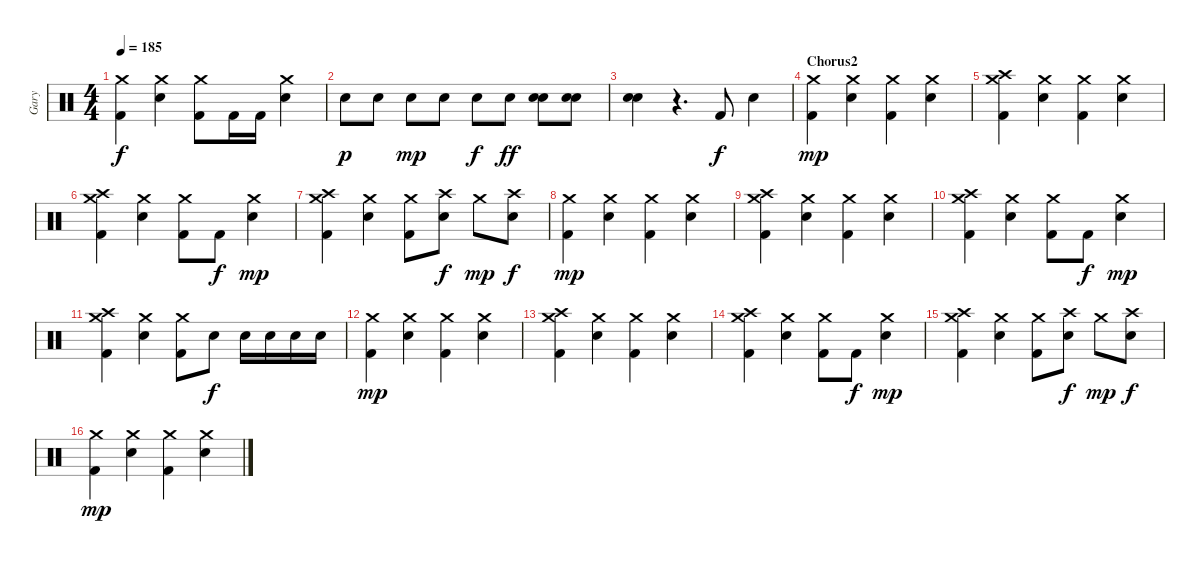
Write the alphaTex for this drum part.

\track ("Gary" "Gary") {instrument percussion}
\staff {score}
\articulation defaults
\ts (4 4)
\tempo 185
\clef neutral
\ks c
("Kick (hit) 2" "Crash medium (hit)").4{dy f} ("Electric Snare (hit)" "Crash medium (hit)").4 ("Kick (hit) 2" "Crash medium (hit)").8 "Kick (hit) 2".16 "Kick (hit) 2".16 ("Electric Snare (hit)" "Crash medium (hit)").4 |
"Electric Snare (hit)".8{dy p} "Electric Snare (hit)".8 "Electric Snare (hit)".8{dy mp} "Electric Snare (hit)".8 "Electric Snare (hit)".8{dy f} "Electric Snare (hit)".8{dy ff} ("Electric Snare (hit)" "Electric Snare (hit)").8 ("Electric Snare (hit)" "Electric Snare (hit)").8 |
("Electric Snare (hit)" "Electric Snare (hit)").4 r.4{d} "Kick (hit) 2".8{dy f} "Electric Snare (hit)".4 |
\section ("" "Chorus2")
("Kick (hit) 2" "Crash medium (hit)").4{dy mp} ("Electric Snare (hit)" "Crash medium (hit)").4 ("Kick (hit) 2" "Crash medium (hit)").4 ("Electric Snare (hit)" "Crash medium (hit)").4 |
("Crash high (hit)" "Kick (hit) 2" "Crash medium (hit)").4 ("Electric Snare (hit)" "Crash medium (hit)").4 ("Kick (hit) 2" "Crash medium (hit)").4 ("Electric Snare (hit)" "Crash medium (hit)").4 |
("Crash high (hit)" "Kick (hit) 2" "Crash medium (hit)").4 ("Electric Snare (hit)" "Crash medium (hit)").4 ("Kick (hit) 2" "Crash medium (hit)").8 "Kick (hit) 2".8{dy f} ("Electric Snare (hit)" "Crash medium (hit)").4{dy mp} |
("Crash high (hit)" "Kick (hit) 2" "Crash medium (hit)").4 ("Electric Snare (hit)" "Crash medium (hit)").4 ("Kick (hit) 2" "Crash medium (hit)").8 ("Crash high (hit)" "Electric Snare (hit)").8{dy f} "Crash medium (hit)".8{dy mp} ("Crash high (hit)" "Electric Snare (hit)").8{dy f} |
("Kick (hit) 2" "Crash medium (hit)").4{dy mp} ("Electric Snare (hit)" "Crash medium (hit)").4 ("Kick (hit) 2" "Crash medium (hit)").4 ("Electric Snare (hit)" "Crash medium (hit)").4 |
("Crash high (hit)" "Kick (hit) 2" "Crash medium (hit)").4 ("Electric Snare (hit)" "Crash medium (hit)").4 ("Kick (hit) 2" "Crash medium (hit)").4 ("Electric Snare (hit)" "Crash medium (hit)").4 |
("Crash high (hit)" "Kick (hit) 2" "Crash medium (hit)").4 ("Electric Snare (hit)" "Crash medium (hit)").4 ("Kick (hit) 2" "Crash medium (hit)").8 "Kick (hit) 2".8{dy f} ("Electric Snare (hit)" "Crash medium (hit)").4{dy mp} |
("Crash high (hit)" "Kick (hit) 2" "Crash medium (hit)").4 ("Electric Snare (hit)" "Crash medium (hit)").4 ("Kick (hit) 2" "Crash medium (hit)").8 "Electric Snare (hit)".8{dy f} "Electric Snare (hit)".16 "Electric Snare (hit)".16 "Electric Snare (hit)".16 "Electric Snare (hit)".16 |
("Kick (hit) 2" "Crash medium (hit)").4{dy mp} ("Electric Snare (hit)" "Crash medium (hit)").4 ("Kick (hit) 2" "Crash medium (hit)").4 ("Electric Snare (hit)" "Crash medium (hit)").4 |
("Crash high (hit)" "Kick (hit) 2" "Crash medium (hit)").4 ("Electric Snare (hit)" "Crash medium (hit)").4 ("Kick (hit) 2" "Crash medium (hit)").4 ("Electric Snare (hit)" "Crash medium (hit)").4 |
("Crash high (hit)" "Kick (hit) 2" "Crash medium (hit)").4 ("Electric Snare (hit)" "Crash medium (hit)").4 ("Kick (hit) 2" "Crash medium (hit)").8 "Kick (hit) 2".8{dy f} ("Electric Snare (hit)" "Crash medium (hit)").4{dy mp} |
("Crash high (hit)" "Kick (hit) 2" "Crash medium (hit)").4 ("Electric Snare (hit)" "Crash medium (hit)").4 ("Kick (hit) 2" "Crash medium (hit)").8 ("Crash high (hit)" "Electric Snare (hit)").8{dy f} "Crash medium (hit)".8{dy mp} ("Crash high (hit)" "Electric Snare (hit)").8{dy f} |
("Kick (hit) 2" "Crash medium (hit)").4{dy mp} ("Electric Snare (hit)" "Crash medium (hit)").4 ("Kick (hit) 2" "Crash medium (hit)").4 ("Electric Snare (hit)" "Crash medium (hit)").4
